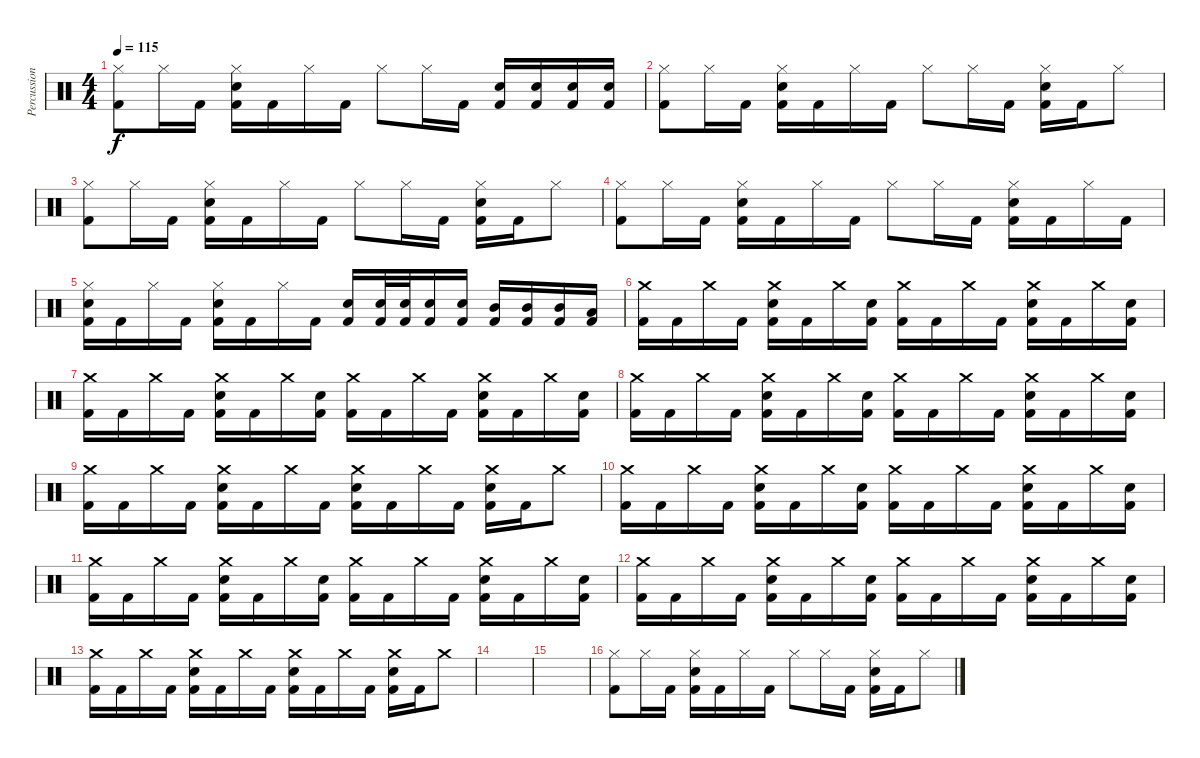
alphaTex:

\track ("Percussion" "Percussion") {instrument percussion}
\staff {score}
\articulation defaults
\ts (4 4)
\tempo 115
\clef neutral
\ks c
("Kick (hit) 2" "Hi-Hat (closed)").8{dy f} "Hi-Hat (closed)".16 "Kick (hit) 2".16 ("Snare (hit) 2" "Kick (hit) 2" "Hi-Hat (closed)").16 "Kick (hit) 2".16 "Hi-Hat (closed)".16 "Kick (hit) 2".16 "Hi-Hat (closed)".8 "Hi-Hat (closed)".16 "Kick (hit) 2".16 ("Snare (hit) 2" "Kick (hit) 2").16 ("Snare (hit) 2" "Kick (hit) 2").16 ("Snare (hit) 2" "Kick (hit) 2").16 ("Snare (hit) 2" "Kick (hit) 2").16 |
("Kick (hit) 2" "Hi-Hat (closed)").8 "Hi-Hat (closed)".16 "Kick (hit) 2".16 ("Snare (hit) 2" "Kick (hit) 2" "Hi-Hat (closed)").16 "Kick (hit) 2".16 "Hi-Hat (closed)".16 "Kick (hit) 2".16 "Hi-Hat (closed)".8 "Hi-Hat (closed)".16 "Kick (hit) 2".16 ("Snare (hit) 2" "Kick (hit) 2" "Hi-Hat (closed)").16 "Kick (hit) 2".16 "Hi-Hat (closed)".8 |
("Kick (hit) 2" "Hi-Hat (closed)").8 "Hi-Hat (closed)".16 "Kick (hit) 2".16 ("Snare (hit) 2" "Kick (hit) 2" "Hi-Hat (closed)").16 "Kick (hit) 2".16 "Hi-Hat (closed)".16 "Kick (hit) 2".16 "Hi-Hat (closed)".8 "Hi-Hat (closed)".16 "Kick (hit) 2".16 ("Snare (hit) 2" "Kick (hit) 2" "Hi-Hat (closed)").16 "Kick (hit) 2".16 "Hi-Hat (closed)".8 |
("Kick (hit) 2" "Hi-Hat (closed)").8 "Hi-Hat (closed)".16 "Kick (hit) 2".16 ("Snare (hit) 2" "Kick (hit) 2" "Hi-Hat (closed)").16 "Kick (hit) 2".16 "Hi-Hat (closed)".16 "Kick (hit) 2".16 "Hi-Hat (closed)".8 "Hi-Hat (closed)".16 "Kick (hit) 2".16 ("Snare (hit) 2" "Kick (hit) 2" "Hi-Hat (closed)").16 "Kick (hit) 2".16 "Hi-Hat (closed)".16 "Kick (hit) 2".16 |
("Snare (hit) 2" "Kick (hit) 2" "Hi-Hat (closed)").16 "Kick (hit) 2".16 "Hi-Hat (closed)".16 "Kick (hit) 2".16 ("Snare (hit) 2" "Kick (hit) 2" "Hi-Hat (closed)").16 "Kick (hit) 2".16 "Hi-Hat (closed)".16 "Kick (hit) 2".16 ("Snare (hit) 2" "Kick (hit) 2").16 ("Snare (hit) 2" "Kick (hit) 2").32 ("Snare (hit) 2" "Kick (hit) 2").32 ("Snare (hit) 2" "Kick (hit) 2").16 ("Snare (hit) 2" "Kick (hit) 2").16 ("Mid Tom (hit)" "Kick (hit) 2").16 ("Mid Tom (hit)" "Kick (hit) 2").16 ("Mid Tom (hit)" "Kick (hit) 2").16 ("Low Tom (hit)" "Kick (hit) 2").16 |
("Kick (hit) 2" "Crash medium (hit)").16 "Kick (hit) 2".16 "Crash medium (hit)".16 "Kick (hit) 2".16 ("Snare (hit) 2" "Kick (hit) 2" "Crash medium (hit)").16 "Kick (hit) 2".16 "Crash medium (hit)".16 ("Snare (hit) 2" "Kick (hit) 2").16 ("Kick (hit) 2" "Crash medium (hit)").16 "Kick (hit) 2".16 "Crash medium (hit)".16 "Kick (hit) 2".16 ("Snare (hit) 2" "Kick (hit) 2" "Crash medium (hit)").16 "Kick (hit) 2".16 "Crash medium (hit)".16 ("Snare (hit) 2" "Kick (hit) 2").16 |
("Kick (hit) 2" "Crash medium (hit)").16 "Kick (hit) 2".16 "Crash medium (hit)".16 "Kick (hit) 2".16 ("Snare (hit) 2" "Kick (hit) 2" "Crash medium (hit)").16 "Kick (hit) 2".16 "Crash medium (hit)".16 ("Snare (hit) 2" "Kick (hit) 2").16 ("Kick (hit) 2" "Crash medium (hit)").16 "Kick (hit) 2".16 "Crash medium (hit)".16 "Kick (hit) 2".16 ("Snare (hit) 2" "Kick (hit) 2" "Crash medium (hit)").16 "Kick (hit) 2".16 "Crash medium (hit)".16 ("Snare (hit) 2" "Kick (hit) 2").16 |
("Kick (hit) 2" "Crash medium (hit)").16 "Kick (hit) 2".16 "Crash medium (hit)".16 "Kick (hit) 2".16 ("Snare (hit) 2" "Kick (hit) 2" "Crash medium (hit)").16 "Kick (hit) 2".16 "Crash medium (hit)".16 ("Snare (hit) 2" "Kick (hit) 2").16 ("Kick (hit) 2" "Crash medium (hit)").16 "Kick (hit) 2".16 "Crash medium (hit)".16 "Kick (hit) 2".16 ("Snare (hit) 2" "Kick (hit) 2" "Crash medium (hit)").16 "Kick (hit) 2".16 "Crash medium (hit)".16 ("Snare (hit) 2" "Kick (hit) 2").16 |
("Kick (hit) 2" "Crash medium (hit)").16 "Kick (hit) 2".16 "Crash medium (hit)".16 "Kick (hit) 2".16 ("Snare (hit) 2" "Kick (hit) 2" "Crash medium (hit)").16 "Kick (hit) 2".16 "Crash medium (hit)".16 "Kick (hit) 2".16 ("Snare (hit) 2" "Kick (hit) 2" "Crash medium (hit)").16 "Kick (hit) 2".16 "Crash medium (hit)".16 "Kick (hit) 2".16 ("Snare (hit) 2" "Kick (hit) 2" "Crash medium (hit)").16 "Kick (hit) 2".16 "Crash medium (hit)".8 |
("Kick (hit) 2" "Crash medium (hit)").16 "Kick (hit) 2".16 "Crash medium (hit)".16 "Kick (hit) 2".16 ("Snare (hit) 2" "Kick (hit) 2" "Crash medium (hit)").16 "Kick (hit) 2".16 "Crash medium (hit)".16 ("Snare (hit) 2" "Kick (hit) 2").16 ("Kick (hit) 2" "Crash medium (hit)").16 "Kick (hit) 2".16 "Crash medium (hit)".16 "Kick (hit) 2".16 ("Snare (hit) 2" "Kick (hit) 2" "Crash medium (hit)").16 "Kick (hit) 2".16 "Crash medium (hit)".16 ("Snare (hit) 2" "Kick (hit) 2").16 |
("Kick (hit) 2" "Crash medium (hit)").16 "Kick (hit) 2".16 "Crash medium (hit)".16 "Kick (hit) 2".16 ("Snare (hit) 2" "Kick (hit) 2" "Crash medium (hit)").16 "Kick (hit) 2".16 "Crash medium (hit)".16 ("Snare (hit) 2" "Kick (hit) 2").16 ("Kick (hit) 2" "Crash medium (hit)").16 "Kick (hit) 2".16 "Crash medium (hit)".16 "Kick (hit) 2".16 ("Snare (hit) 2" "Kick (hit) 2" "Crash medium (hit)").16 "Kick (hit) 2".16 "Crash medium (hit)".16 ("Snare (hit) 2" "Kick (hit) 2").16 |
("Kick (hit) 2" "Crash medium (hit)").16 "Kick (hit) 2".16 "Crash medium (hit)".16 "Kick (hit) 2".16 ("Snare (hit) 2" "Kick (hit) 2" "Crash medium (hit)").16 "Kick (hit) 2".16 "Crash medium (hit)".16 ("Snare (hit) 2" "Kick (hit) 2").16 ("Kick (hit) 2" "Crash medium (hit)").16 "Kick (hit) 2".16 "Crash medium (hit)".16 "Kick (hit) 2".16 ("Snare (hit) 2" "Kick (hit) 2" "Crash medium (hit)").16 "Kick (hit) 2".16 "Crash medium (hit)".16 ("Snare (hit) 2" "Kick (hit) 2").16 |
("Kick (hit) 2" "Crash medium (hit)").16 "Kick (hit) 2".16 "Crash medium (hit)".16 "Kick (hit) 2".16 ("Snare (hit) 2" "Kick (hit) 2" "Crash medium (hit)").16 "Kick (hit) 2".16 "Crash medium (hit)".16 "Kick (hit) 2".16 ("Snare (hit) 2" "Kick (hit) 2" "Crash medium (hit)").16 "Kick (hit) 2".16 "Crash medium (hit)".16 "Kick (hit) 2".16 ("Snare (hit) 2" "Kick (hit) 2" "Crash medium (hit)").16 "Kick (hit) 2".16 "Crash medium (hit)".8 |
|
|
("Kick (hit) 2" "Hi-Hat (closed)").8 "Hi-Hat (closed)".16 "Kick (hit) 2".16 ("Snare (hit) 2" "Kick (hit) 2" "Hi-Hat (closed)").16 "Kick (hit) 2".16 "Hi-Hat (closed)".16 "Kick (hit) 2".16 "Hi-Hat (closed)".8 "Hi-Hat (closed)".16 "Kick (hit) 2".16 ("Snare (hit) 2" "Kick (hit) 2" "Hi-Hat (closed)").16 "Kick (hit) 2".16 "Hi-Hat (closed)".8
